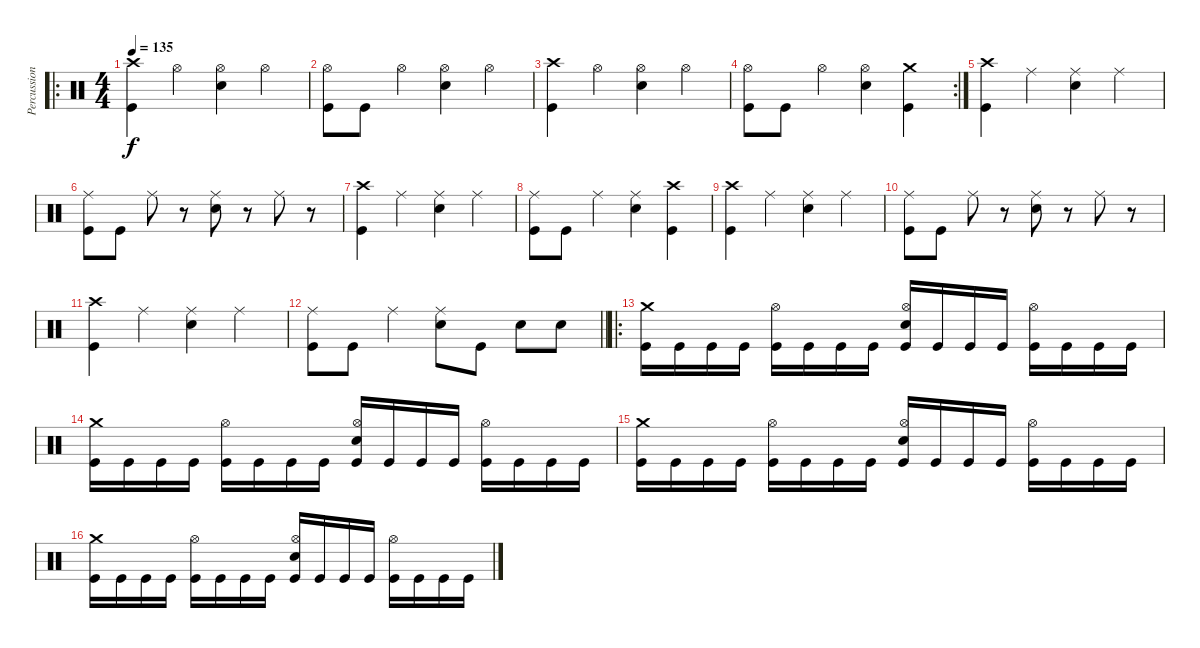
\track ("Percussion" "Percussion") {instrument percussion}
\staff {score}
\articulation defaults
\ro
\ts (4 4)
\tempo 135
\clef neutral
\ks c
("Crash high (hit)" "Kick (hit)").4{dy f} "Hi-Hat (open)".4 ("Hi-Hat (open)" "Electric Snare (hit)").4 "Hi-Hat (open)".4 |
("Hi-Hat (open)" "Kick (hit)").8 "Kick (hit)".8 "Hi-Hat (open)".4 ("Hi-Hat (open)" "Electric Snare (hit)").4 "Hi-Hat (open)".4 |
("Crash high (hit)" "Kick (hit)").4 "Hi-Hat (open)".4 ("Hi-Hat (open)" "Electric Snare (hit)").4 "Hi-Hat (open)".4 |
\rc 2
("Hi-Hat (open)" "Kick (hit)").8 "Kick (hit)".8 "Hi-Hat (open)".4 ("Hi-Hat (open)" "Electric Snare (hit)").4 ("Crash medium (hit)" "Kick (hit)").4 |
("Crash high (hit)" "Kick (hit)").4 "Ride (middle)".4 ("Ride (middle)" "Electric Snare (hit)").4 "Ride (middle)".4 |
("Ride (middle)" "Kick (hit)").8 "Kick (hit)".8 "Ride (middle)".8 r.8 ("Ride (middle)" "Electric Snare (hit)").8 r.8 "Ride (middle)".8 r.8 |
("Crash high (hit)" "Kick (hit)").4 "Ride (middle)".4 ("Ride (middle)" "Electric Snare (hit)").4 "Ride (middle)".4 |
("Ride (middle)" "Kick (hit)").8 "Kick (hit)".8 "Ride (middle)".4 ("Ride (middle)" "Electric Snare (hit)").4 ("Crash high (hit)" "Kick (hit)").4 |
("Crash high (hit)" "Kick (hit)").4 "Ride (middle)".4 ("Ride (middle)" "Electric Snare (hit)").4 "Ride (middle)".4 |
("Ride (middle)" "Kick (hit)").8 "Kick (hit)".8 "Ride (middle)".8 r.8 ("Ride (middle)" "Electric Snare (hit)").8 r.8 "Ride (middle)".8 r.8 |
("Crash high (hit)" "Kick (hit)").4 "Ride (middle)".4 ("Ride (middle)" "Electric Snare (hit)").4 "Ride (middle)".4 |
\barLineRight lightlight
("Ride (middle)" "Kick (hit)").8 "Kick (hit)".8 "Ride (middle)".4 ("Ride (middle)" "Electric Snare (hit)").8 "Kick (hit)".8 "Electric Snare (hit)".8 "Electric Snare (hit)".8 |
\ro
("Crash medium (hit)" "Kick (hit)").16 "Kick (hit)".16 "Kick (hit)".16 "Kick (hit)".16 ("Hi-Hat (open)" "Kick (hit)").16 "Kick (hit)".16 "Kick (hit)".16 "Kick (hit)".16 ("Hi-Hat (open)" "Electric Snare (hit)" "Kick (hit)").16 "Kick (hit)".16 "Kick (hit)".16 "Kick (hit)".16 ("Hi-Hat (open)" "Kick (hit)").16 "Kick (hit)".16 "Kick (hit)".16 "Kick (hit)".16 |
("Crash medium (hit)" "Kick (hit)").16 "Kick (hit)".16 "Kick (hit)".16 "Kick (hit)".16 ("Hi-Hat (open)" "Kick (hit)").16 "Kick (hit)".16 "Kick (hit)".16 "Kick (hit)".16 ("Hi-Hat (open)" "Electric Snare (hit)" "Kick (hit)").16 "Kick (hit)".16 "Kick (hit)".16 "Kick (hit)".16 ("Hi-Hat (open)" "Kick (hit)").16 "Kick (hit)".16 "Kick (hit)".16 "Kick (hit)".16 |
("Crash medium (hit)" "Kick (hit)").16 "Kick (hit)".16 "Kick (hit)".16 "Kick (hit)".16 ("Hi-Hat (open)" "Kick (hit)").16 "Kick (hit)".16 "Kick (hit)".16 "Kick (hit)".16 ("Hi-Hat (open)" "Electric Snare (hit)" "Kick (hit)").16 "Kick (hit)".16 "Kick (hit)".16 "Kick (hit)".16 ("Hi-Hat (open)" "Kick (hit)").16 "Kick (hit)".16 "Kick (hit)".16 "Kick (hit)".16 |
("Crash medium (hit)" "Kick (hit)").16 "Kick (hit)".16 "Kick (hit)".16 "Kick (hit)".16 ("Hi-Hat (open)" "Kick (hit)").16 "Kick (hit)".16 "Kick (hit)".16 "Kick (hit)".16 ("Hi-Hat (open)" "Electric Snare (hit)" "Kick (hit)").16 "Kick (hit)".16 "Kick (hit)".16 "Kick (hit)".16 ("Hi-Hat (open)" "Kick (hit)").16 "Kick (hit)".16 "Kick (hit)".16 "Kick (hit)".16
